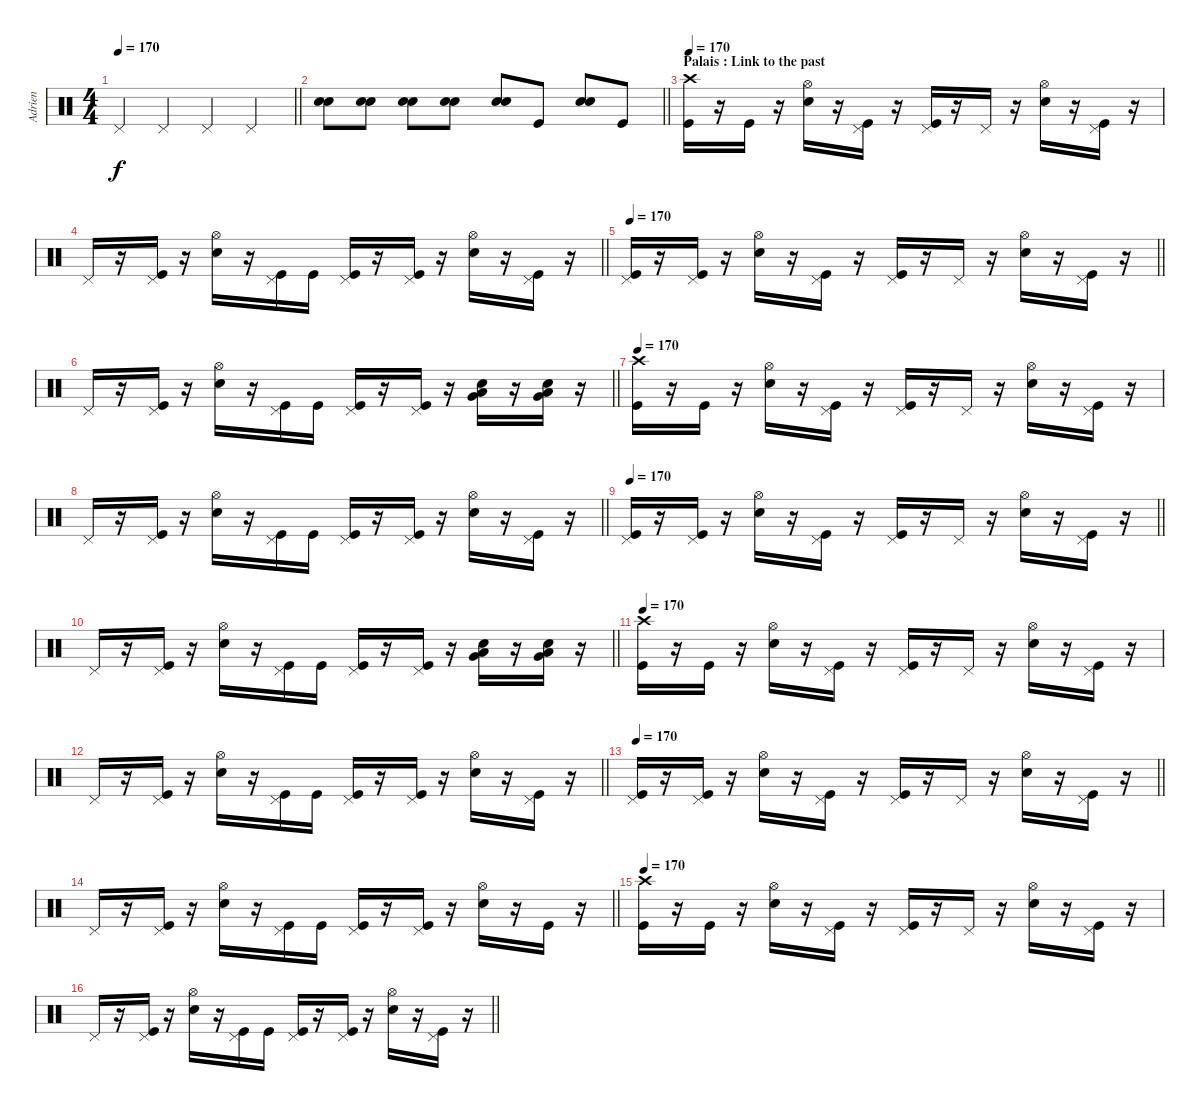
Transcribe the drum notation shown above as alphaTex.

\track ("Adrien" "Adrien") {instrument percussion}
\staff {score}
\articulation defaults
\ts (4 4)
\tempo 170
\clef neutral
\barLineRight lightlight
\ks c "Pedal Hi-Hat (hit)".4{dy f} "Pedal Hi-Hat (hit)".4 "Pedal Hi-Hat (hit)".4 "Pedal Hi-Hat (hit)".4
|
\barLineRight lightlight
("Snare (hit) 2" "Snare (hit) 2").8 ("Snare (hit) 2" "Snare (hit) 2").8 ("Snare (hit) 2" "Snare (hit) 2").8 ("Snare (hit) 2" "Snare (hit) 2").8 ("Snare (hit) 2" "Snare (hit) 2").8 "Kick (hit)".8 ("Snare (hit) 2" "Snare (hit) 2").8 "Kick (hit)".8 |
\section ("" "Palais : Link to the past")
\tempo 170
("Crash high (hit)" "Kick (hit)").16 r.16 "Kick (hit)".16 r.16 ("Hi-Hat (open)" "Electric Snare (hit)").16 r.16 ("Pedal Hi-Hat (hit)" "Kick (hit)").16 r.16 ("Pedal Hi-Hat (hit)" "Kick (hit)").16 r.16 "Pedal Hi-Hat (hit)".16 r.16 ("Hi-Hat (open)" "Electric Snare (hit)").16 r.16 ("Pedal Hi-Hat (hit)" "Kick (hit)").16 r.16 |
\barLineRight lightlight "Pedal Hi-Hat (hit)".16
r.16 ("Pedal Hi-Hat (hit)" "Kick (hit)").16 r.16 ("Hi-Hat (open)" "Electric Snare (hit)").16 r.16 ("Pedal Hi-Hat (hit)" "Kick (hit)").16 "Kick (hit)".16 ("Pedal Hi-Hat (hit)" "Kick (hit)").16 r.16 ("Pedal Hi-Hat (hit)" "Kick (hit)").16 r.16 ("Hi-Hat (open)" "Electric Snare (hit)").16 r.16 ("Pedal Hi-Hat (hit)" "Kick (hit)").16 r.16 |
\tempo 170
\barLineRight lightlight
("Pedal Hi-Hat (hit)" "Kick (hit)").16 r.16 ("Pedal Hi-Hat (hit)" "Kick (hit)").16 r.16 ("Hi-Hat (open)" "Electric Snare (hit)").16 r.16 ("Pedal Hi-Hat (hit)" "Kick (hit)").16 r.16 ("Pedal Hi-Hat (hit)" "Kick (hit)").16 r.16 "Pedal Hi-Hat (hit)".16 r.16 ("Hi-Hat (open)" "Electric Snare (hit)").16 r.16 ("Pedal Hi-Hat (hit)" "Kick (hit)").16 r.16 |
\barLineRight lightlight "Pedal Hi-Hat (hit)".16
r.16 ("Pedal Hi-Hat (hit)" "Kick (hit)").16 r.16 ("Hi-Hat (open)" "Electric Snare (hit)").16 r.16 ("Pedal Hi-Hat (hit)" "Kick (hit)").16 "Kick (hit)".16 ("Pedal Hi-Hat (hit)" "Kick (hit)").16 r.16 ("Pedal Hi-Hat (hit)" "Kick (hit)").16 r.16 ("Very Low Tom (hit)" "Low Floor Tom (hit)" "Electric Snare (hit)").16 r.16 ("Very Low Tom (hit)" "Low Floor Tom (hit)" "Electric Snare (hit)").16 r.16 |
\tempo 170
("Crash high (hit)" "Kick (hit)").16 r.16 "Kick (hit)".16 r.16 ("Hi-Hat (open)" "Electric Snare (hit)").16 r.16 ("Pedal Hi-Hat (hit)" "Kick (hit)").16 r.16 ("Pedal Hi-Hat (hit)" "Kick (hit)").16 r.16 "Pedal Hi-Hat (hit)".16 r.16 ("Hi-Hat (open)" "Electric Snare (hit)").16 r.16 ("Pedal Hi-Hat (hit)" "Kick (hit)").16 r.16 |
\barLineRight lightlight "Pedal Hi-Hat (hit)".16
r.16 ("Pedal Hi-Hat (hit)" "Kick (hit)").16 r.16 ("Hi-Hat (open)" "Electric Snare (hit)").16 r.16 ("Pedal Hi-Hat (hit)" "Kick (hit)").16 "Kick (hit)".16 ("Pedal Hi-Hat (hit)" "Kick (hit)").16 r.16 ("Pedal Hi-Hat (hit)" "Kick (hit)").16 r.16 ("Hi-Hat (open)" "Electric Snare (hit)").16 r.16 ("Pedal Hi-Hat (hit)" "Kick (hit)").16 r.16 |
\tempo 170
\barLineRight lightlight
("Pedal Hi-Hat (hit)" "Kick (hit)").16 r.16 ("Pedal Hi-Hat (hit)" "Kick (hit)").16 r.16 ("Hi-Hat (open)" "Electric Snare (hit)").16 r.16 ("Pedal Hi-Hat (hit)" "Kick (hit)").16 r.16 ("Pedal Hi-Hat (hit)" "Kick (hit)").16 r.16 "Pedal Hi-Hat (hit)".16 r.16 ("Hi-Hat (open)" "Electric Snare (hit)").16 r.16 ("Pedal Hi-Hat (hit)" "Kick (hit)").16 r.16 |
\barLineRight lightlight "Pedal Hi-Hat (hit)".16
r.16 ("Pedal Hi-Hat (hit)" "Kick (hit)").16 r.16 ("Hi-Hat (open)" "Electric Snare (hit)").16 r.16 ("Pedal Hi-Hat (hit)" "Kick (hit)").16 "Kick (hit)".16 ("Pedal Hi-Hat (hit)" "Kick (hit)").16 r.16 ("Pedal Hi-Hat (hit)" "Kick (hit)").16 r.16 ("Very Low Tom (hit)" "Low Floor Tom (hit)" "Electric Snare (hit)").16 r.16 ("Very Low Tom (hit)" "Low Floor Tom (hit)" "Electric Snare (hit)").16 r.16 |
\tempo 170
("Crash high (hit)" "Kick (hit)").16 r.16 "Kick (hit)".16 r.16 ("Hi-Hat (open)" "Electric Snare (hit)").16 r.16 ("Pedal Hi-Hat (hit)" "Kick (hit)").16 r.16 ("Pedal Hi-Hat (hit)" "Kick (hit)").16 r.16 "Pedal Hi-Hat (hit)".16 r.16 ("Hi-Hat (open)" "Electric Snare (hit)").16 r.16 ("Pedal Hi-Hat (hit)" "Kick (hit)").16 r.16 |
\barLineRight lightlight "Pedal Hi-Hat (hit)".16
r.16 ("Pedal Hi-Hat (hit)" "Kick (hit)").16 r.16 ("Hi-Hat (open)" "Electric Snare (hit)").16 r.16 ("Pedal Hi-Hat (hit)" "Kick (hit)").16 "Kick (hit)".16 ("Pedal Hi-Hat (hit)" "Kick (hit)").16 r.16 ("Pedal Hi-Hat (hit)" "Kick (hit)").16 r.16 ("Hi-Hat (open)" "Electric Snare (hit)").16 r.16 ("Pedal Hi-Hat (hit)" "Kick (hit)").16 r.16 |
\tempo 170
\barLineRight lightlight
("Pedal Hi-Hat (hit)" "Kick (hit)").16 r.16 ("Pedal Hi-Hat (hit)" "Kick (hit)").16 r.16 ("Hi-Hat (open)" "Electric Snare (hit)").16 r.16 ("Pedal Hi-Hat (hit)" "Kick (hit)").16 r.16 ("Pedal Hi-Hat (hit)" "Kick (hit)").16 r.16 "Pedal Hi-Hat (hit)".16 r.16 ("Hi-Hat (open)" "Electric Snare (hit)").16 r.16 ("Pedal Hi-Hat (hit)" "Kick (hit)").16 r.16 |
\barLineRight lightlight "Pedal Hi-Hat (hit)".16
r.16 ("Pedal Hi-Hat (hit)" "Kick (hit)").16 r.16 ("Hi-Hat (open)" "Electric Snare (hit)").16 r.16 ("Pedal Hi-Hat (hit)" "Kick (hit)").16 "Kick (hit)".16 ("Pedal Hi-Hat (hit)" "Kick (hit)").16 r.16 ("Pedal Hi-Hat (hit)" "Kick (hit)").16 r.16 ("Hi-Hat (open)" "Electric Snare (hit)").16 r.16 "Kick (hit)".16 r.16 |
\tempo 170
("Crash high (hit)" "Kick (hit)").16 r.16 "Kick (hit)".16 r.16 ("Hi-Hat (open)" "Electric Snare (hit)").16 r.16 ("Pedal Hi-Hat (hit)" "Kick (hit)").16 r.16 ("Pedal Hi-Hat (hit)" "Kick (hit)").16 r.16 "Pedal Hi-Hat (hit)".16 r.16 ("Hi-Hat (open)" "Electric Snare (hit)").16 r.16 ("Pedal Hi-Hat (hit)" "Kick (hit)").16 r.16 |
\barLineRight lightlight "Pedal Hi-Hat (hit)".16
r.16 ("Pedal Hi-Hat (hit)" "Kick (hit)").16 r.16 ("Hi-Hat (open)" "Electric Snare (hit)").16 r.16 ("Pedal Hi-Hat (hit)" "Kick (hit)").16 "Kick (hit)".16 ("Pedal Hi-Hat (hit)" "Kick (hit)").16 r.16 ("Pedal Hi-Hat (hit)" "Kick (hit)").16 r.16 ("Hi-Hat (open)" "Electric Snare (hit)").16 r.16 ("Pedal Hi-Hat (hit)" "Kick (hit)").16 r.16
